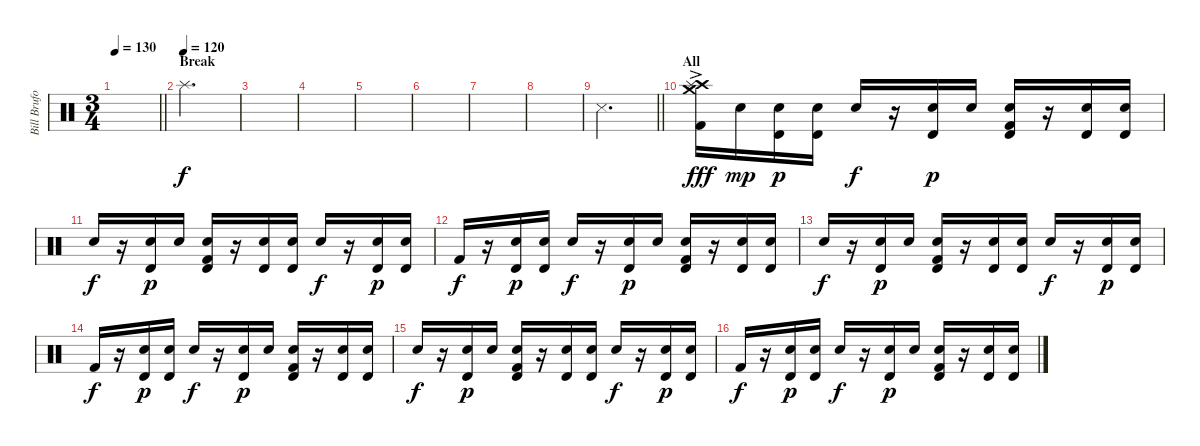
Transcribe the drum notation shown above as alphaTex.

\track ("Bill Bruford (Drums)" "Bill Brufo") {instrument percussion}
\staff {score}
\articulation defaults
\ts (3 4)
\tempo 130
\clef neutral
\barLineRight lightlight
\ks c
|
\section ("" "Break")
\tempo (120)
"Splash (hit)".2{d} |
|
|
|
|
|
|
\barLineRight lightlight "Metronome (hit)".2{d}
|
\section ("" "All")
("Crash medium (hit)"{ac} "Crash high (hit)"{ac} "Splash (hit)"{ac} "Kick (hit) 2").16{dy fff} "Electric Snare (hit)".16{dy mp} ("Electric Snare (hit)" "Timbale high (hit)").16{dy p} ("Electric Snare (hit)" "Timbale high (hit)").16 "Electric Snare (hit)".16{dy f} r.16 ("Electric Snare (hit)" "Timbale high (hit)").16{dy p} "Electric Snare (hit)".16 ("Electric Snare (hit)" "Timbale high (hit)" "Kick (hit) 2").16 r.16 ("Electric Snare (hit)" "Timbale high (hit)").16 ("Electric Snare (hit)" "Timbale high (hit)").16 |
"Electric Snare (hit)".16{dy f} r.16 ("Electric Snare (hit)" "Timbale high (hit)").16{dy p} "Electric Snare (hit)".16 ("Electric Snare (hit)" "Timbale high (hit)" "Kick (hit) 2").16 r.16 ("Electric Snare (hit)" "Timbale high (hit)").16 ("Electric Snare (hit)" "Timbale high (hit)").16 "Electric Snare (hit)".16{dy f} r.16 ("Electric Snare (hit)" "Timbale high (hit)").16{dy p} ("Electric Snare (hit)" "Timbale high (hit)").16 |
"Kick (hit) 2".16{dy f} r.16 ("Electric Snare (hit)" "Timbale high (hit)").16{dy p} ("Electric Snare (hit)" "Timbale high (hit)").16 "Electric Snare (hit)".16{dy f} r.16 ("Electric Snare (hit)" "Timbale high (hit)").16{dy p} "Electric Snare (hit)".16 ("Electric Snare (hit)" "Timbale high (hit)" "Kick (hit) 2").16 r.16 ("Electric Snare (hit)" "Timbale high (hit)").16 ("Electric Snare (hit)" "Timbale high (hit)").16 |
"Electric Snare (hit)".16{dy f} r.16 ("Electric Snare (hit)" "Timbale high (hit)").16{dy p} "Electric Snare (hit)".16 ("Electric Snare (hit)" "Timbale high (hit)" "Kick (hit) 2").16 r.16 ("Electric Snare (hit)" "Timbale high (hit)").16 ("Electric Snare (hit)" "Timbale high (hit)").16 "Electric Snare (hit)".16{dy f} r.16 ("Electric Snare (hit)" "Timbale high (hit)").16{dy p} ("Electric Snare (hit)" "Timbale high (hit)").16 |
"Kick (hit) 2".16{dy f} r.16 ("Electric Snare (hit)" "Timbale high (hit)").16{dy p} ("Electric Snare (hit)" "Timbale high (hit)").16 "Electric Snare (hit)".16{dy f} r.16 ("Electric Snare (hit)" "Timbale high (hit)").16{dy p} "Electric Snare (hit)".16 ("Electric Snare (hit)" "Timbale high (hit)" "Kick (hit) 2").16 r.16 ("Electric Snare (hit)" "Timbale high (hit)").16 ("Electric Snare (hit)" "Timbale high (hit)").16 |
"Electric Snare (hit)".16{dy f} r.16 ("Electric Snare (hit)" "Timbale high (hit)").16{dy p} "Electric Snare (hit)".16 ("Electric Snare (hit)" "Timbale high (hit)" "Kick (hit) 2").16 r.16 ("Electric Snare (hit)" "Timbale high (hit)").16 ("Electric Snare (hit)" "Timbale high (hit)").16 "Electric Snare (hit)".16{dy f} r.16 ("Electric Snare (hit)" "Timbale high (hit)").16{dy p} ("Electric Snare (hit)" "Timbale high (hit)").16 |
"Kick (hit) 2".16{dy f} r.16 ("Electric Snare (hit)" "Timbale high (hit)").16{dy p} ("Electric Snare (hit)" "Timbale high (hit)").16 "Electric Snare (hit)".16{dy f} r.16 ("Electric Snare (hit)" "Timbale high (hit)").16{dy p} "Electric Snare (hit)".16 ("Electric Snare (hit)" "Timbale high (hit)" "Kick (hit) 2").16 r.16 ("Electric Snare (hit)" "Timbale high (hit)").16 ("Electric Snare (hit)" "Timbale high (hit)").16
